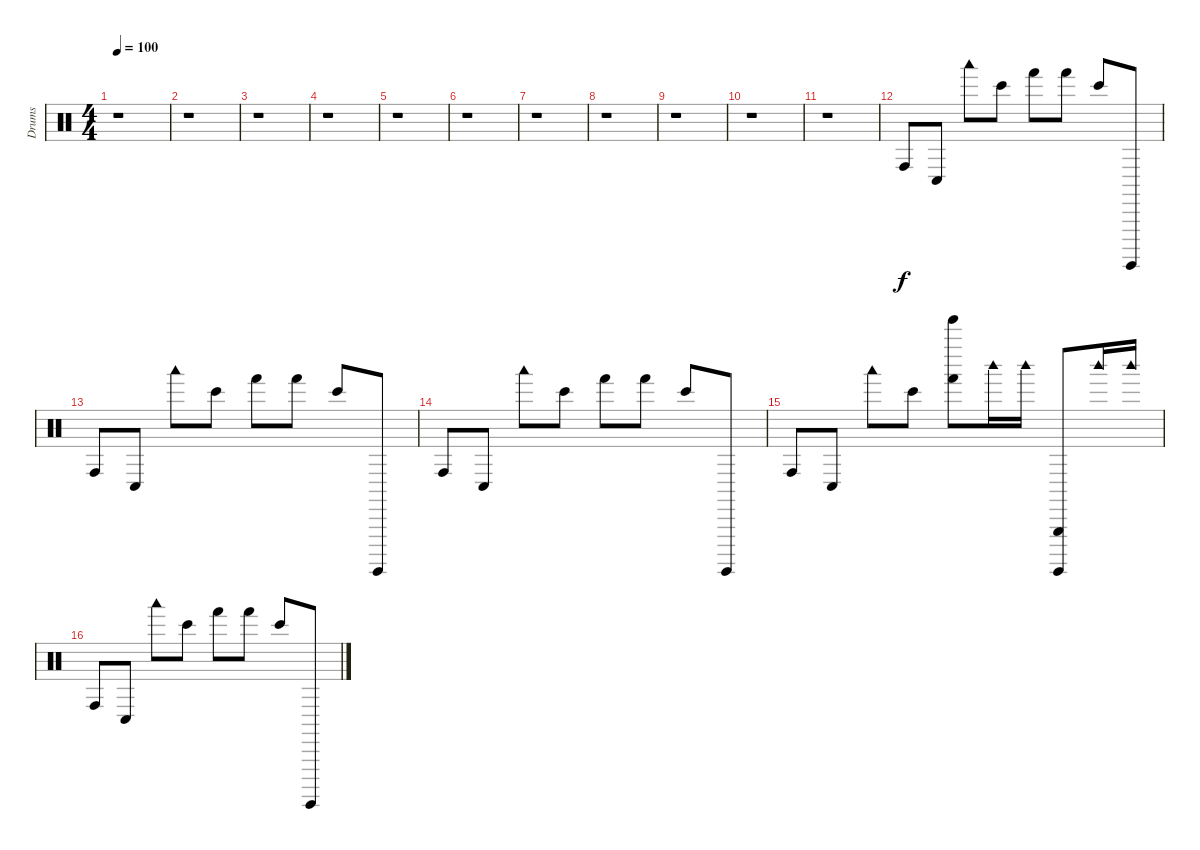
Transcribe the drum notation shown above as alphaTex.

\track ("Drums" "Drums") {instrument percussion}
\staff {score}
\articulation defaults
\ts (4 4)
\tempo 100
\clef neutral
\ks c
r.1{dy f} |
r.1 |
r.1 |
r.1 |
r.1 |
r.1 |
r.1 |
r.1 |
r.1 |
r.1 |
r.1 |
"Conga high (hit)".8 "Conga low (hit)".8 "Woodblock low (hit)".8 "Bongo High (hit)".8 "Hand (hit)".8 "Hand (hit)".8 "Bongo High (hit)".8 "Surdo (hit)".8 |
"Conga high (hit)".8 "Conga low (hit)".8 "Woodblock low (hit)".8 "Bongo High (hit)".8 "Hand (hit)".8 "Hand (hit)".8 "Bongo High (hit)".8 "Surdo (hit)".8 |
"Conga high (hit)".8 "Conga low (hit)".8 "Woodblock low (hit)".8 "Bongo High (hit)".8 "Hand (hit)".8 "Hand (hit)".8 "Bongo High (hit)".8 "Surdo (hit)".8 |
"Conga high (hit)".8 "Conga low (hit)".8 "Woodblock low (hit)".8 "Bongo High (hit)".8 ("Hand (hit)" "Tinkle Bell (hit)").8 "Woodblock high (hit)".16 "Woodblock high (hit)".16 ("Surdo (hit)" "Triangle (hit)").8 "Woodblock high (hit)".16 "Woodblock high (hit)".16 |
"Conga high (hit)".8 "Conga low (hit)".8 "Woodblock low (hit)".8 "Bongo High (hit)".8 "Hand (hit)".8 "Hand (hit)".8 "Bongo High (hit)".8 "Surdo (hit)".8
